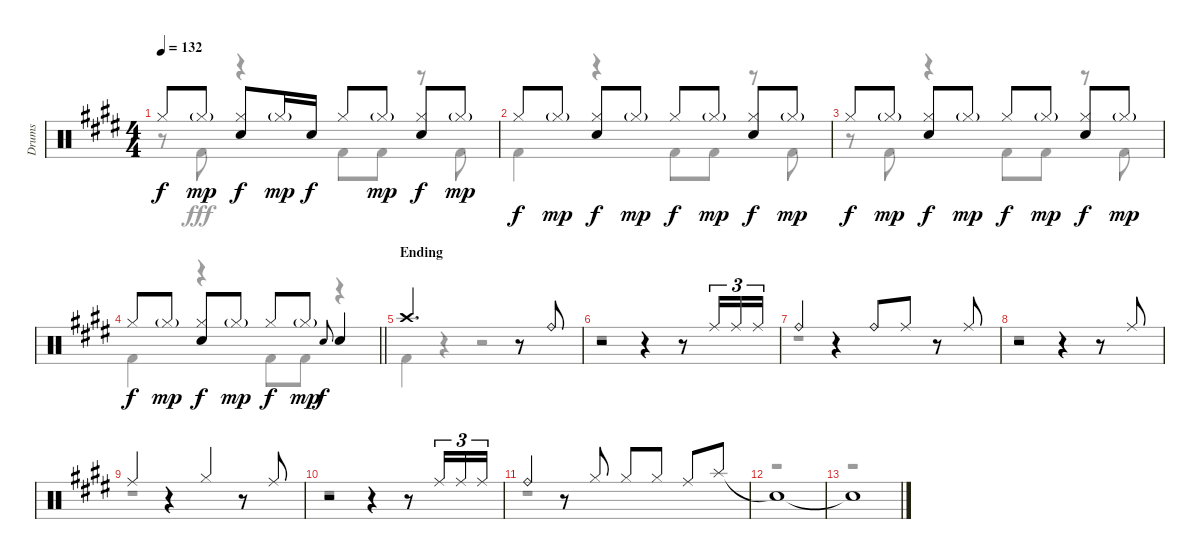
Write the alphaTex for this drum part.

\track ("Drums" "Drums") {instrument percussion}
\staff {score}
\articulation defaults
\voice
\ts (4 4)
\tempo 132
\clef neutral
\ks e "Hi-Hat (closed)".8{dy f} "Hi-Hat (closed)"{g}.8{dy mp}
("Hi-Hat (closed)" "Snare (hit) 2").8{dy f} "Hi-Hat (closed)"{g}.16{dy mp} "Snare (hit) 2".16{dy f} "Hi-Hat (closed)".8 "Hi-Hat (closed)"{g}.8{dy mp} ("Hi-Hat (closed)" "Snare (hit) 2").8{dy f} "Hi-Hat (closed)"{g}.8{dy mp} |
"Hi-Hat (closed)".8{dy f} "Hi-Hat (closed)"{g}.8{dy mp} ("Hi-Hat (closed)" "Snare (hit) 2").8{dy f} "Hi-Hat (closed)"{g}.8{dy mp} "Hi-Hat (closed)".8{dy f} "Hi-Hat (closed)"{g}.8{dy mp} ("Hi-Hat (closed)" "Snare (hit) 2").8{dy f} "Hi-Hat (closed)"{g}.8{dy mp} |
"Hi-Hat (closed)".8{dy f} "Hi-Hat (closed)"{g}.8{dy mp} ("Hi-Hat (closed)" "Snare (hit) 2").8{dy f} "Hi-Hat (closed)"{g}.8{dy mp} "Hi-Hat (closed)".8{dy f} "Hi-Hat (closed)"{g}.8{dy mp} ("Hi-Hat (closed)" "Snare (hit) 2").8{dy f} "Hi-Hat (closed)"{g}.8{dy mp} |
\barLineRight lightlight "Hi-Hat (closed)".8{dy f} "Hi-Hat (closed)"{g}.8{dy mp}
("Hi-Hat (closed)" "Snare (hit) 2").8{dy f} "Hi-Hat (closed)"{g}.8{dy mp} "Hi-Hat (closed)".8{dy f} "Hi-Hat (closed)"{g}.8{dy mp} "Snare (hit) 2".8{gr onbeat dy f} "Snare (hit) 2".4 |
\section ("" "Ending")
"Crash high (hit)".2{d} r.8 "Ride (bell)".8 |
r.2 r.4 r.8 "Ride (middle)".16{tu (3 2)} "Ride (middle)".16{tu (3 2)} "Ride (middle)".16{tu (3 2)} |
"Ride (bell)".4 r.4 "Ride (bell)".8 "Ride (middle)".8 r.8 "Ride (middle)".8 |
r.2 r.4 r.8 "Ride (middle)".8 |
"Ride (middle)".4 r.4 "Hi-Hat (closed)".4 r.8 "Ride (middle)".8 |
r.2 r.4 r.8 "Ride (middle)".16{tu (3 2)} "Ride (middle)".16{tu (3 2)} "Ride (middle)".16{tu (3 2)} |
"Ride (bell)".4 r.8 "Hi-Hat (closed)".8 "Hi-Hat (closed)".8 "Hi-Hat (closed)".8 "Ride (middle)".8 "Splash (hit)".8 |
"Snare (hit)"{t}.1 |
"Snare (hit)"{t}.1
\voice
\clef neutral
\ottava regular
\simile none
\ks e
r.8{dy fff} "Kick (hit) 2".8 r.4 "Kick (hit) 2".8 "Kick (hit) 2".8 r.8 "Kick (hit) 2".8 |
"Kick (hit) 2".4 r.4 "Kick (hit) 2".8 "Kick (hit) 2".8 r.8 "Kick (hit) 2".8 |
r.8 "Kick (hit) 2".8 r.4 "Kick (hit) 2".8 "Kick (hit) 2".8 r.8 "Kick (hit) 2".8 |
\barLineRight lightlight "Kick (hit) 2".4
r.4 "Kick (hit) 2".8 "Kick (hit) 2".8 r.4 |
"Kick (hit) 2".4 r.4 r.2 |
r.1 |
r.1 |
r.1 |
r.1 |
r.1 |
r.1 |
r.1 |
r.1
